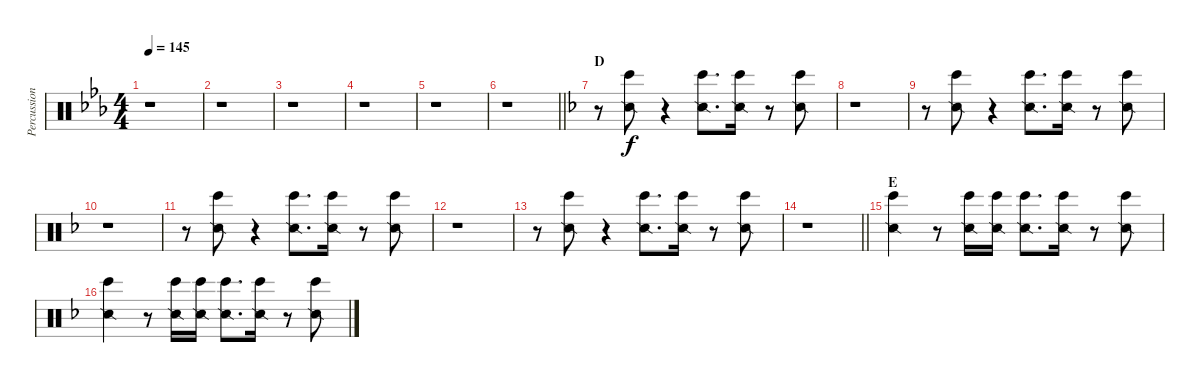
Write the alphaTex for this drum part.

\track ("Percussion" "Percussion") {instrument percussion}
\staff {score}
\articulation defaults
\ts (4 4)
\tempo 145
\clef neutral
\ks eb
r.1{dy f} |
r.1 |
r.1 |
r.1 |
r.1 |
\barLineRight lightlight
r.1 |
\section ("" "D")
\ks f
r.8 ("Snare (side stick) 2" "Bongo High (hit)").8 r.4 ("Snare (side stick) 2" "Bongo High (hit)").8{d} ("Snare (side stick) 2" "Bongo High (hit)").16 r.8 ("Snare (side stick) 2" "Bongo High (hit)").8 |
r.1 |
r.8 ("Snare (side stick) 2" "Bongo High (hit)").8 r.4 ("Snare (side stick) 2" "Bongo High (hit)").8{d} ("Snare (side stick) 2" "Bongo High (hit)").16 r.8 ("Snare (side stick) 2" "Bongo High (hit)").8 |
r.1 |
r.8 ("Snare (side stick) 2" "Bongo High (hit)").8 r.4 ("Snare (side stick) 2" "Bongo High (hit)").8{d} ("Snare (side stick) 2" "Bongo High (hit)").16 r.8 ("Snare (side stick) 2" "Bongo High (hit)").8 |
r.1 |
r.8 ("Snare (side stick) 2" "Bongo High (hit)").8 r.4 ("Snare (side stick) 2" "Bongo High (hit)").8{d} ("Snare (side stick) 2" "Bongo High (hit)").16 r.8 ("Snare (side stick) 2" "Bongo High (hit)").8 |
\barLineRight lightlight
r.1 |
\section ("" "E")
("Snare (side stick) 2" "Bongo High (hit)").4 r.8 ("Snare (side stick) 2" "Bongo High (hit)").16 ("Snare (side stick) 2" "Bongo High (hit)").16 ("Snare (side stick) 2" "Bongo High (hit)").8{d} ("Snare (side stick) 2" "Bongo High (hit)").16 r.8 ("Snare (side stick) 2" "Bongo High (hit)").8 |
("Snare (side stick) 2" "Bongo High (hit)").4 r.8 ("Snare (side stick) 2" "Bongo High (hit)").16 ("Snare (side stick) 2" "Bongo High (hit)").16 ("Snare (side stick) 2" "Bongo High (hit)").8{d} ("Snare (side stick) 2" "Bongo High (hit)").16 r.8 ("Snare (side stick) 2" "Bongo High (hit)").8
